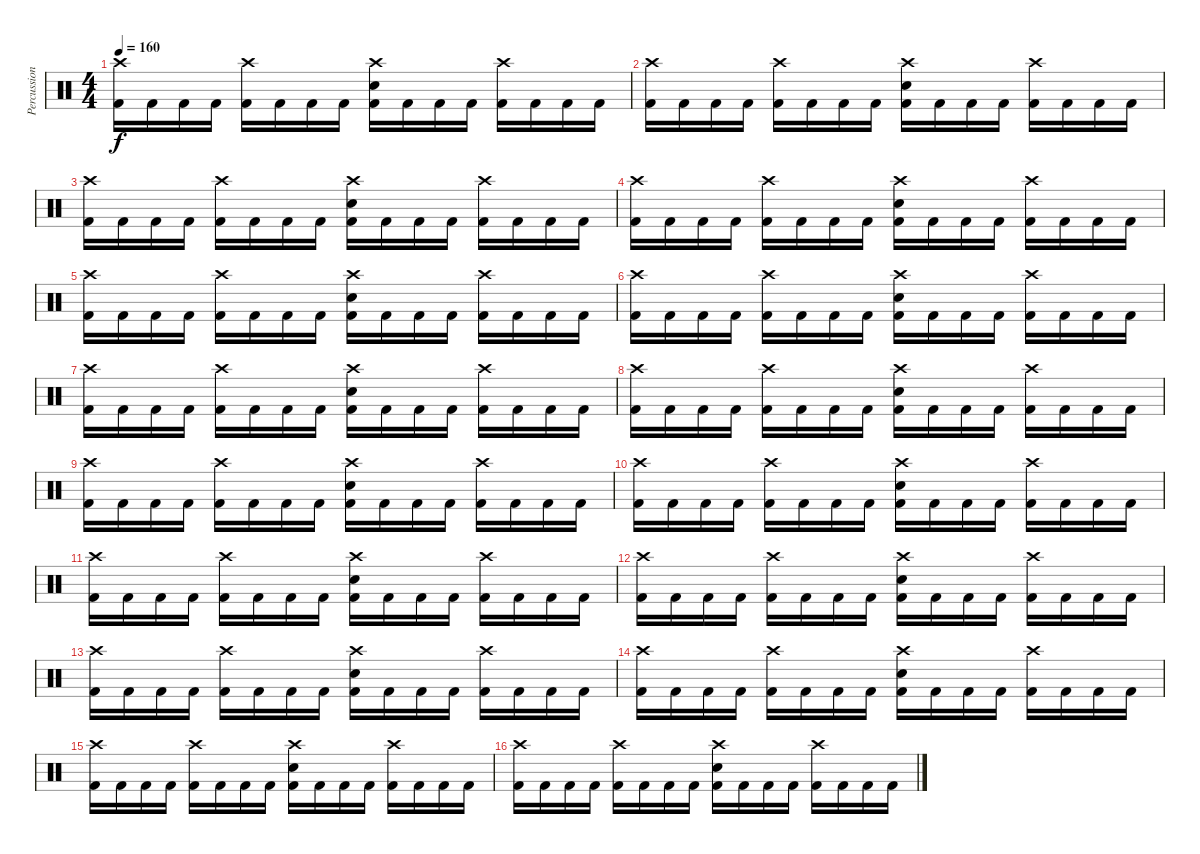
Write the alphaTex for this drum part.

\track ("Percussion" "Percussion") {instrument percussion}
\staff {score}
\articulation defaults
\ts (4 4)
\tempo 160
\clef neutral
\ks c
("Crash high (hit)" "Kick (hit) 2").16{dy f} "Kick (hit) 2".16 "Kick (hit) 2".16 "Kick (hit) 2".16 ("Crash high (hit)" "Kick (hit) 2").16 "Kick (hit) 2".16 "Kick (hit) 2".16 "Kick (hit) 2".16 ("Crash high (hit)" "Electric Snare (hit)" "Kick (hit) 2").16 "Kick (hit) 2".16 "Kick (hit) 2".16 "Kick (hit) 2".16 ("Crash high (hit)" "Kick (hit) 2").16 "Kick (hit) 2".16 "Kick (hit) 2".16 "Kick (hit) 2".16 |
("Crash high (hit)" "Kick (hit) 2").16 "Kick (hit) 2".16 "Kick (hit) 2".16 "Kick (hit) 2".16 ("Crash high (hit)" "Kick (hit) 2").16 "Kick (hit) 2".16 "Kick (hit) 2".16 "Kick (hit) 2".16 ("Crash high (hit)" "Electric Snare (hit)" "Kick (hit) 2").16 "Kick (hit) 2".16 "Kick (hit) 2".16 "Kick (hit) 2".16 ("Crash high (hit)" "Kick (hit) 2").16 "Kick (hit) 2".16 "Kick (hit) 2".16 "Kick (hit) 2".16 |
("Crash high (hit)" "Kick (hit) 2").16 "Kick (hit) 2".16 "Kick (hit) 2".16 "Kick (hit) 2".16 ("Crash high (hit)" "Kick (hit) 2").16 "Kick (hit) 2".16 "Kick (hit) 2".16 "Kick (hit) 2".16 ("Crash high (hit)" "Electric Snare (hit)" "Kick (hit) 2").16 "Kick (hit) 2".16 "Kick (hit) 2".16 "Kick (hit) 2".16 ("Crash high (hit)" "Kick (hit) 2").16 "Kick (hit) 2".16 "Kick (hit) 2".16 "Kick (hit) 2".16 |
("Crash high (hit)" "Kick (hit) 2").16 "Kick (hit) 2".16 "Kick (hit) 2".16 "Kick (hit) 2".16 ("Crash high (hit)" "Kick (hit) 2").16 "Kick (hit) 2".16 "Kick (hit) 2".16 "Kick (hit) 2".16 ("Crash high (hit)" "Electric Snare (hit)" "Kick (hit) 2").16 "Kick (hit) 2".16 "Kick (hit) 2".16 "Kick (hit) 2".16 ("Crash high (hit)" "Kick (hit) 2").16 "Kick (hit) 2".16 "Kick (hit) 2".16 "Kick (hit) 2".16 |
("Crash high (hit)" "Kick (hit) 2").16 "Kick (hit) 2".16 "Kick (hit) 2".16 "Kick (hit) 2".16 ("Crash high (hit)" "Kick (hit) 2").16 "Kick (hit) 2".16 "Kick (hit) 2".16 "Kick (hit) 2".16 ("Crash high (hit)" "Electric Snare (hit)" "Kick (hit) 2").16 "Kick (hit) 2".16 "Kick (hit) 2".16 "Kick (hit) 2".16 ("Crash high (hit)" "Kick (hit) 2").16 "Kick (hit) 2".16 "Kick (hit) 2".16 "Kick (hit) 2".16 |
("Crash high (hit)" "Kick (hit) 2").16 "Kick (hit) 2".16 "Kick (hit) 2".16 "Kick (hit) 2".16 ("Crash high (hit)" "Kick (hit) 2").16 "Kick (hit) 2".16 "Kick (hit) 2".16 "Kick (hit) 2".16 ("Crash high (hit)" "Electric Snare (hit)" "Kick (hit) 2").16 "Kick (hit) 2".16 "Kick (hit) 2".16 "Kick (hit) 2".16 ("Crash high (hit)" "Kick (hit) 2").16 "Kick (hit) 2".16 "Kick (hit) 2".16 "Kick (hit) 2".16 |
("Crash high (hit)" "Kick (hit) 2").16 "Kick (hit) 2".16 "Kick (hit) 2".16 "Kick (hit) 2".16 ("Crash high (hit)" "Kick (hit) 2").16 "Kick (hit) 2".16 "Kick (hit) 2".16 "Kick (hit) 2".16 ("Crash high (hit)" "Electric Snare (hit)" "Kick (hit) 2").16 "Kick (hit) 2".16 "Kick (hit) 2".16 "Kick (hit) 2".16 ("Crash high (hit)" "Kick (hit) 2").16 "Kick (hit) 2".16 "Kick (hit) 2".16 "Kick (hit) 2".16 |
("Crash high (hit)" "Kick (hit) 2").16 "Kick (hit) 2".16 "Kick (hit) 2".16 "Kick (hit) 2".16 ("Crash high (hit)" "Kick (hit) 2").16 "Kick (hit) 2".16 "Kick (hit) 2".16 "Kick (hit) 2".16 ("Crash high (hit)" "Electric Snare (hit)" "Kick (hit) 2").16 "Kick (hit) 2".16 "Kick (hit) 2".16 "Kick (hit) 2".16 ("Crash high (hit)" "Kick (hit) 2").16 "Kick (hit) 2".16 "Kick (hit) 2".16 "Kick (hit) 2".16 |
("Crash high (hit)" "Kick (hit) 2").16 "Kick (hit) 2".16 "Kick (hit) 2".16 "Kick (hit) 2".16 ("Crash high (hit)" "Kick (hit) 2").16 "Kick (hit) 2".16 "Kick (hit) 2".16 "Kick (hit) 2".16 ("Crash high (hit)" "Electric Snare (hit)" "Kick (hit) 2").16 "Kick (hit) 2".16 "Kick (hit) 2".16 "Kick (hit) 2".16 ("Crash high (hit)" "Kick (hit) 2").16 "Kick (hit) 2".16 "Kick (hit) 2".16 "Kick (hit) 2".16 |
("Crash high (hit)" "Kick (hit) 2").16 "Kick (hit) 2".16 "Kick (hit) 2".16 "Kick (hit) 2".16 ("Crash high (hit)" "Kick (hit) 2").16 "Kick (hit) 2".16 "Kick (hit) 2".16 "Kick (hit) 2".16 ("Crash high (hit)" "Electric Snare (hit)" "Kick (hit) 2").16 "Kick (hit) 2".16 "Kick (hit) 2".16 "Kick (hit) 2".16 ("Crash high (hit)" "Kick (hit) 2").16 "Kick (hit) 2".16 "Kick (hit) 2".16 "Kick (hit) 2".16 |
("Crash high (hit)" "Kick (hit) 2").16 "Kick (hit) 2".16 "Kick (hit) 2".16 "Kick (hit) 2".16 ("Crash high (hit)" "Kick (hit) 2").16 "Kick (hit) 2".16 "Kick (hit) 2".16 "Kick (hit) 2".16 ("Crash high (hit)" "Electric Snare (hit)" "Kick (hit) 2").16 "Kick (hit) 2".16 "Kick (hit) 2".16 "Kick (hit) 2".16 ("Crash high (hit)" "Kick (hit) 2").16 "Kick (hit) 2".16 "Kick (hit) 2".16 "Kick (hit) 2".16 |
("Crash high (hit)" "Kick (hit) 2").16 "Kick (hit) 2".16 "Kick (hit) 2".16 "Kick (hit) 2".16 ("Crash high (hit)" "Kick (hit) 2").16 "Kick (hit) 2".16 "Kick (hit) 2".16 "Kick (hit) 2".16 ("Crash high (hit)" "Electric Snare (hit)" "Kick (hit) 2").16 "Kick (hit) 2".16 "Kick (hit) 2".16 "Kick (hit) 2".16 ("Crash high (hit)" "Kick (hit) 2").16 "Kick (hit) 2".16 "Kick (hit) 2".16 "Kick (hit) 2".16 |
("Crash high (hit)" "Kick (hit) 2").16 "Kick (hit) 2".16 "Kick (hit) 2".16 "Kick (hit) 2".16 ("Crash high (hit)" "Kick (hit) 2").16 "Kick (hit) 2".16 "Kick (hit) 2".16 "Kick (hit) 2".16 ("Crash high (hit)" "Electric Snare (hit)" "Kick (hit) 2").16 "Kick (hit) 2".16 "Kick (hit) 2".16 "Kick (hit) 2".16 ("Crash high (hit)" "Kick (hit) 2").16 "Kick (hit) 2".16 "Kick (hit) 2".16 "Kick (hit) 2".16 |
("Crash high (hit)" "Kick (hit) 2").16 "Kick (hit) 2".16 "Kick (hit) 2".16 "Kick (hit) 2".16 ("Crash high (hit)" "Kick (hit) 2").16 "Kick (hit) 2".16 "Kick (hit) 2".16 "Kick (hit) 2".16 ("Crash high (hit)" "Electric Snare (hit)" "Kick (hit) 2").16 "Kick (hit) 2".16 "Kick (hit) 2".16 "Kick (hit) 2".16 ("Crash high (hit)" "Kick (hit) 2").16 "Kick (hit) 2".16 "Kick (hit) 2".16 "Kick (hit) 2".16 |
("Crash high (hit)" "Kick (hit) 2").16 "Kick (hit) 2".16 "Kick (hit) 2".16 "Kick (hit) 2".16 ("Crash high (hit)" "Kick (hit) 2").16 "Kick (hit) 2".16 "Kick (hit) 2".16 "Kick (hit) 2".16 ("Crash high (hit)" "Electric Snare (hit)" "Kick (hit) 2").16 "Kick (hit) 2".16 "Kick (hit) 2".16 "Kick (hit) 2".16 ("Crash high (hit)" "Kick (hit) 2").16 "Kick (hit) 2".16 "Kick (hit) 2".16 "Kick (hit) 2".16 |
("Crash high (hit)" "Kick (hit) 2").16 "Kick (hit) 2".16 "Kick (hit) 2".16 "Kick (hit) 2".16 ("Crash high (hit)" "Kick (hit) 2").16 "Kick (hit) 2".16 "Kick (hit) 2".16 "Kick (hit) 2".16 ("Crash high (hit)" "Electric Snare (hit)" "Kick (hit) 2").16 "Kick (hit) 2".16 "Kick (hit) 2".16 "Kick (hit) 2".16 ("Crash high (hit)" "Kick (hit) 2").16 "Kick (hit) 2".16 "Kick (hit) 2".16 "Kick (hit) 2".16
